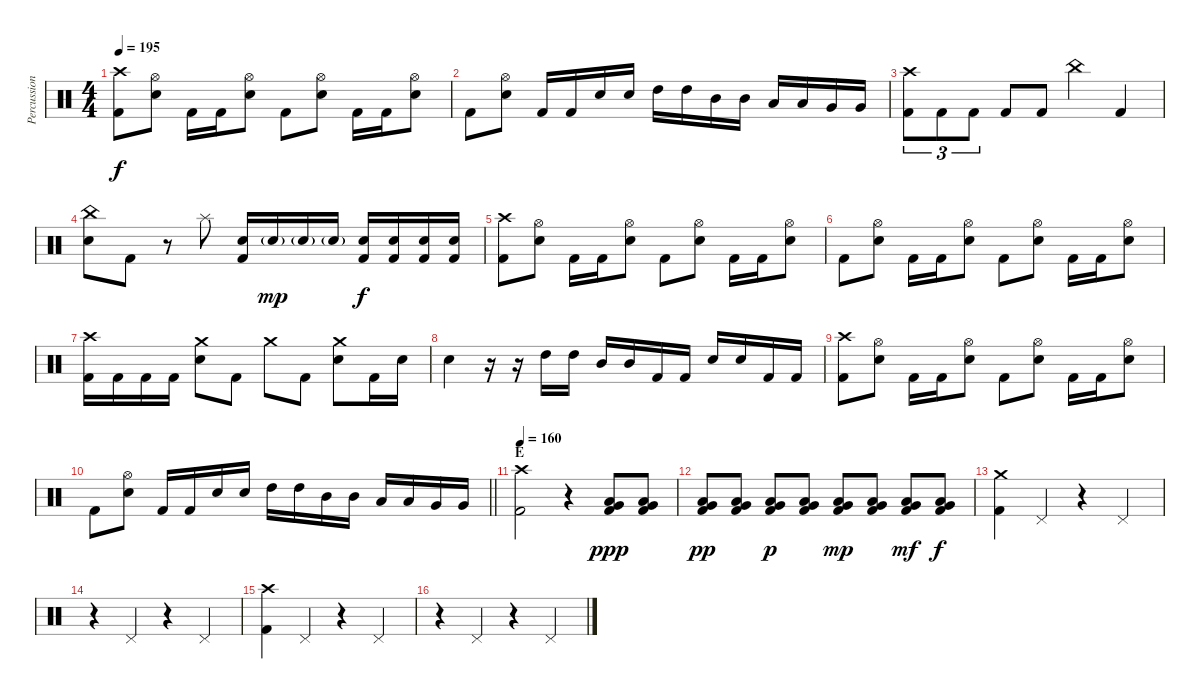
\track ("Percussion" "Percussion") {instrument percussion}
\staff {score}
\articulation defaults
\ts (4 4)
\tempo 195
\clef neutral
\ks c
("Crash high (hit)" "Kick (hit) 2").8{dy f} ("Hi-Hat (open)" "Electric Snare (hit)").8 "Kick (hit) 2".16 "Kick (hit) 2".16 ("Hi-Hat (open)" "Electric Snare (hit)").8 "Kick (hit) 2".8 ("Hi-Hat (open)" "Electric Snare (hit)").8 "Kick (hit) 2".16 "Kick (hit) 2".16 ("Hi-Hat (open)" "Electric Snare (hit)").8 |
"Kick (hit) 2".8 ("Hi-Hat (open)" "Electric Snare (hit)").8 "Kick (hit) 2".16 "Kick (hit) 2".16 "Electric Snare (hit)".16 "Electric Snare (hit)".16 "High Tom (hit)".16 "High Tom (hit)".16 "Mid Tom (hit)".16 "Mid Tom (hit)".16 "Low Tom (hit)".16 "Low Tom (hit)".16 "Very Low Tom (hit)".16 "Very Low Tom (hit)".16 |
("Crash high (hit)" "Kick (hit) 2").8{tu (3 2)} "Kick (hit) 2".8{tu (3 2)} "Kick (hit) 2".8{tu (3 2)} "Kick (hit) 2".8 "Kick (hit) 2".8 "China (hit)".4 "Kick (hit) 2".4 |
("China (hit)" "Electric Snare (hit)").8 "Kick (hit) 2".8 r.8 "Splash (hit)".8 ("Electric Snare (hit)" "Kick (hit) 2").16 "Electric Snare (hit)"{g}.16{dy mp} "Electric Snare (hit)"{g}.16 "Electric Snare (hit)"{g}.16 ("Electric Snare (hit)" "Kick (hit) 2").16{dy f} ("Electric Snare (hit)" "Kick (hit) 2").16 ("Electric Snare (hit)" "Kick (hit) 2").16 ("Electric Snare (hit)" "Kick (hit) 2").16 |
("Crash high (hit)" "Kick (hit) 2").8 ("Hi-Hat (open)" "Electric Snare (hit)").8 "Kick (hit) 2".16 "Kick (hit) 2".16 ("Hi-Hat (open)" "Electric Snare (hit)").8 "Kick (hit) 2".8 ("Hi-Hat (open)" "Electric Snare (hit)").8 "Kick (hit) 2".16 "Kick (hit) 2".16 ("Hi-Hat (open)" "Electric Snare (hit)").8 |
"Kick (hit) 2".8 ("Hi-Hat (open)" "Electric Snare (hit)").8 "Kick (hit) 2".16 "Kick (hit) 2".16 ("Hi-Hat (open)" "Electric Snare (hit)").8 "Kick (hit) 2".8 ("Hi-Hat (open)" "Electric Snare (hit)").8 "Kick (hit) 2".16 "Kick (hit) 2".16 ("Hi-Hat (open)" "Electric Snare (hit)").8 |
("Crash high (hit)" "Kick (hit) 2").16 "Kick (hit) 2".16 "Kick (hit) 2".16 "Kick (hit) 2".16 ("Crash medium (hit)" "Electric Snare (hit)").8 "Kick (hit) 2".8 "Crash medium (hit)".8 "Kick (hit) 2".8 ("Crash medium (hit)" "Electric Snare (hit)").8 "Kick (hit) 2".16 "Electric Snare (hit)".16 |
"Electric Snare (hit)".4 r.16 r.16 "High Tom (hit)".16 "High Tom (hit)".16 "Mid Tom (hit)".16 "Mid Tom (hit)".16 "Kick (hit) 2".16 "Kick (hit) 2".16 "Electric Snare (hit)".16 "Electric Snare (hit)".16 "Kick (hit) 2".16 "Kick (hit) 2".16 |
("Crash high (hit)" "Kick (hit) 2").8 ("Hi-Hat (open)" "Electric Snare (hit)").8 "Kick (hit) 2".16 "Kick (hit) 2".16 ("Hi-Hat (open)" "Electric Snare (hit)").8 "Kick (hit) 2".8 ("Hi-Hat (open)" "Electric Snare (hit)").8 "Kick (hit) 2".16 "Kick (hit) 2".16 ("Hi-Hat (open)" "Electric Snare (hit)").8 |
\barLineRight lightlight "Kick (hit) 2".8
("Hi-Hat (open)" "Electric Snare (hit)").8 "Kick (hit) 2".16 "Kick (hit) 2".16 "Electric Snare (hit)".16 "Electric Snare (hit)".16 "High Tom (hit)".16 "High Tom (hit)".16 "Mid Tom (hit)".16 "Mid Tom (hit)".16 "Low Tom (hit)".16 "Low Tom (hit)".16 "Very Low Tom (hit)".16 "Very Low Tom (hit)".16 |
\section ("" "E")
\tempo 160
("Crash high (hit)" "Kick (hit) 2").2 r.4 ("Very Low Tom (hit)" "Low Floor Tom (hit)" "Kick (hit) 2").8{dy ppp} ("Very Low Tom (hit)" "Low Floor Tom (hit)" "Kick (hit) 2").8 |
("Very Low Tom (hit)" "Low Floor Tom (hit)" "Kick (hit) 2").8{dy pp} ("Very Low Tom (hit)" "Low Floor Tom (hit)" "Kick (hit) 2").8 ("Very Low Tom (hit)" "Low Floor Tom (hit)" "Kick (hit) 2").8{dy p} ("Very Low Tom (hit)" "Low Floor Tom (hit)" "Kick (hit) 2").8 ("Very Low Tom (hit)" "Low Floor Tom (hit)" "Kick (hit) 2").8{dy mp} ("Very Low Tom (hit)" "Low Floor Tom (hit)" "Kick (hit) 2").8 ("Very Low Tom (hit)" "Low Floor Tom (hit)" "Kick (hit) 2").8{dy mf} ("Very Low Tom (hit)" "Low Floor Tom (hit)" "Kick (hit) 2").8{dy f} |
("Crash medium (hit)" "Kick (hit) 2").4 "Pedal Hi-Hat (hit)".4 r.4 "Pedal Hi-Hat (hit)".4 |
r.4 "Pedal Hi-Hat (hit)".4 r.4 "Pedal Hi-Hat (hit)".4 |
("Crash high (hit)" "Kick (hit) 2").4 "Pedal Hi-Hat (hit)".4 r.4 "Pedal Hi-Hat (hit)".4 |
r.4 "Pedal Hi-Hat (hit)".4 r.4 "Pedal Hi-Hat (hit)".4
